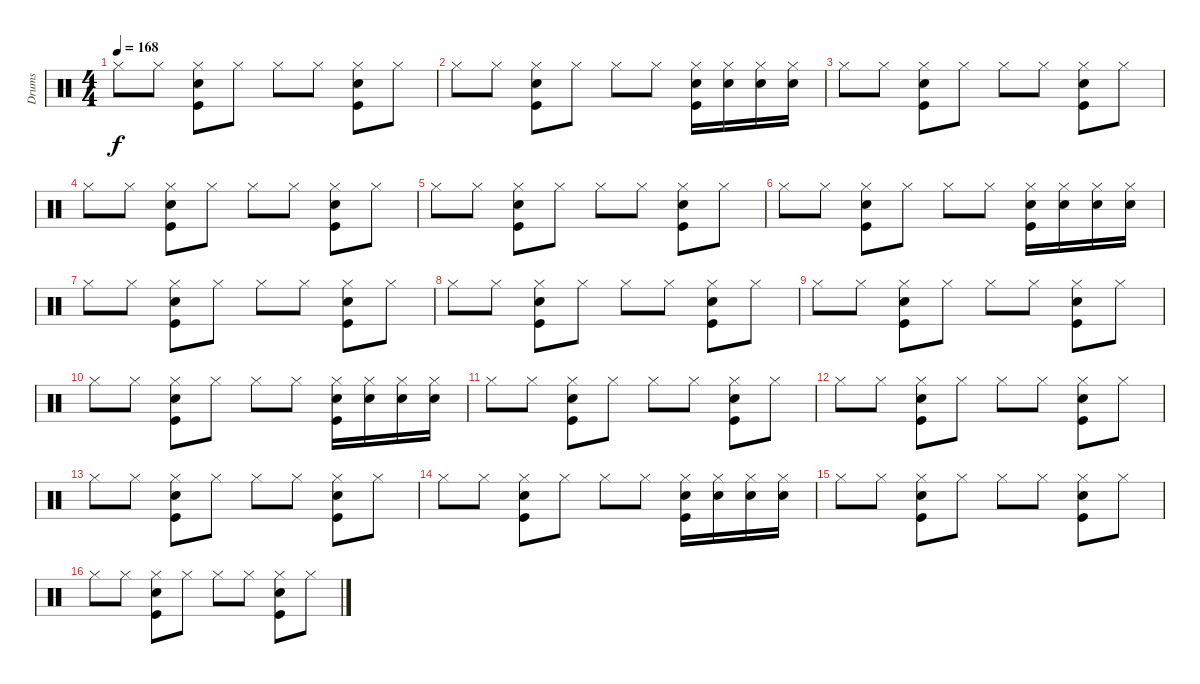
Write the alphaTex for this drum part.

\track ("Drums" "Drums") {instrument percussion}
\staff {score}
\articulation defaults
\ts (4 4)
\tempo 168
\clef neutral
\ks c "Hi-Hat (closed)".8{dy f} "Hi-Hat (closed)".8
("Snare (hit) 2" "Kick (hit)" "Hi-Hat (closed)").8 "Hi-Hat (closed)".8 "Hi-Hat (closed)".8 "Hi-Hat (closed)".8 ("Snare (hit) 2" "Kick (hit)" "Hi-Hat (closed)").8 "Hi-Hat (closed)".8 |
"Hi-Hat (closed)".8 "Hi-Hat (closed)".8 ("Snare (hit) 2" "Kick (hit)" "Hi-Hat (closed)").8 "Hi-Hat (closed)".8 "Hi-Hat (closed)".8 "Hi-Hat (closed)".8 ("Snare (hit) 2" "Kick (hit)" "Hi-Hat (closed)").16 ("Hi-Hat (closed)" "Snare (hit) 2").16 ("Hi-Hat (closed)" "Snare (hit) 2").16 ("Snare (hit) 2" "Hi-Hat (closed)").16 |
"Hi-Hat (closed)".8 "Hi-Hat (closed)".8 ("Snare (hit) 2" "Kick (hit)" "Hi-Hat (closed)").8 "Hi-Hat (closed)".8 "Hi-Hat (closed)".8 "Hi-Hat (closed)".8 ("Snare (hit) 2" "Kick (hit)" "Hi-Hat (closed)").8 "Hi-Hat (closed)".8 |
"Hi-Hat (closed)".8 "Hi-Hat (closed)".8 ("Snare (hit) 2" "Kick (hit)" "Hi-Hat (closed)").8 "Hi-Hat (closed)".8 "Hi-Hat (closed)".8 "Hi-Hat (closed)".8 ("Snare (hit) 2" "Kick (hit)" "Hi-Hat (closed)").8 "Hi-Hat (closed)".8 |
"Hi-Hat (closed)".8 "Hi-Hat (closed)".8 ("Snare (hit) 2" "Kick (hit)" "Hi-Hat (closed)").8 "Hi-Hat (closed)".8 "Hi-Hat (closed)".8 "Hi-Hat (closed)".8 ("Snare (hit) 2" "Kick (hit)" "Hi-Hat (closed)").8 "Hi-Hat (closed)".8 |
"Hi-Hat (closed)".8 "Hi-Hat (closed)".8 ("Snare (hit) 2" "Kick (hit)" "Hi-Hat (closed)").8 "Hi-Hat (closed)".8 "Hi-Hat (closed)".8 "Hi-Hat (closed)".8 ("Snare (hit) 2" "Kick (hit)" "Hi-Hat (closed)").16 ("Hi-Hat (closed)" "Snare (hit) 2").16 ("Hi-Hat (closed)" "Snare (hit) 2").16 ("Snare (hit) 2" "Hi-Hat (closed)").16 |
"Hi-Hat (closed)".8 "Hi-Hat (closed)".8 ("Snare (hit) 2" "Kick (hit)" "Hi-Hat (closed)").8 "Hi-Hat (closed)".8 "Hi-Hat (closed)".8 "Hi-Hat (closed)".8 ("Snare (hit) 2" "Kick (hit)" "Hi-Hat (closed)").8 "Hi-Hat (closed)".8 |
"Hi-Hat (closed)".8 "Hi-Hat (closed)".8 ("Snare (hit) 2" "Kick (hit)" "Hi-Hat (closed)").8 "Hi-Hat (closed)".8 "Hi-Hat (closed)".8 "Hi-Hat (closed)".8 ("Snare (hit) 2" "Kick (hit)" "Hi-Hat (closed)").8 "Hi-Hat (closed)".8 |
"Hi-Hat (closed)".8 "Hi-Hat (closed)".8 ("Snare (hit) 2" "Kick (hit)" "Hi-Hat (closed)").8 "Hi-Hat (closed)".8 "Hi-Hat (closed)".8 "Hi-Hat (closed)".8 ("Snare (hit) 2" "Kick (hit)" "Hi-Hat (closed)").8 "Hi-Hat (closed)".8 |
"Hi-Hat (closed)".8 "Hi-Hat (closed)".8 ("Snare (hit) 2" "Kick (hit)" "Hi-Hat (closed)").8 "Hi-Hat (closed)".8 "Hi-Hat (closed)".8 "Hi-Hat (closed)".8 ("Snare (hit) 2" "Kick (hit)" "Hi-Hat (closed)").16 ("Hi-Hat (closed)" "Snare (hit) 2").16 ("Hi-Hat (closed)" "Snare (hit) 2").16 ("Snare (hit) 2" "Hi-Hat (closed)").16 |
"Hi-Hat (closed)".8 "Hi-Hat (closed)".8 ("Snare (hit) 2" "Kick (hit)" "Hi-Hat (closed)").8 "Hi-Hat (closed)".8 "Hi-Hat (closed)".8 "Hi-Hat (closed)".8 ("Snare (hit) 2" "Kick (hit)" "Hi-Hat (closed)").8 "Hi-Hat (closed)".8 |
"Hi-Hat (closed)".8 "Hi-Hat (closed)".8 ("Snare (hit) 2" "Kick (hit)" "Hi-Hat (closed)").8 "Hi-Hat (closed)".8 "Hi-Hat (closed)".8 "Hi-Hat (closed)".8 ("Snare (hit) 2" "Kick (hit)" "Hi-Hat (closed)").8 "Hi-Hat (closed)".8 |
"Hi-Hat (closed)".8 "Hi-Hat (closed)".8 ("Snare (hit) 2" "Kick (hit)" "Hi-Hat (closed)").8 "Hi-Hat (closed)".8 "Hi-Hat (closed)".8 "Hi-Hat (closed)".8 ("Snare (hit) 2" "Kick (hit)" "Hi-Hat (closed)").8 "Hi-Hat (closed)".8 |
"Hi-Hat (closed)".8 "Hi-Hat (closed)".8 ("Snare (hit) 2" "Kick (hit)" "Hi-Hat (closed)").8 "Hi-Hat (closed)".8 "Hi-Hat (closed)".8 "Hi-Hat (closed)".8 ("Snare (hit) 2" "Kick (hit)" "Hi-Hat (closed)").16 ("Hi-Hat (closed)" "Snare (hit) 2").16 ("Hi-Hat (closed)" "Snare (hit) 2").16 ("Snare (hit) 2" "Hi-Hat (closed)").16 |
"Hi-Hat (closed)".8 "Hi-Hat (closed)".8 ("Snare (hit) 2" "Kick (hit)" "Hi-Hat (closed)").8 "Hi-Hat (closed)".8 "Hi-Hat (closed)".8 "Hi-Hat (closed)".8 ("Snare (hit) 2" "Kick (hit)" "Hi-Hat (closed)").8 "Hi-Hat (closed)".8 |
"Hi-Hat (closed)".8 "Hi-Hat (closed)".8 ("Snare (hit) 2" "Kick (hit)" "Hi-Hat (closed)").8 "Hi-Hat (closed)".8 "Hi-Hat (closed)".8 "Hi-Hat (closed)".8 ("Snare (hit) 2" "Kick (hit)" "Hi-Hat (closed)").8 "Hi-Hat (closed)".8
